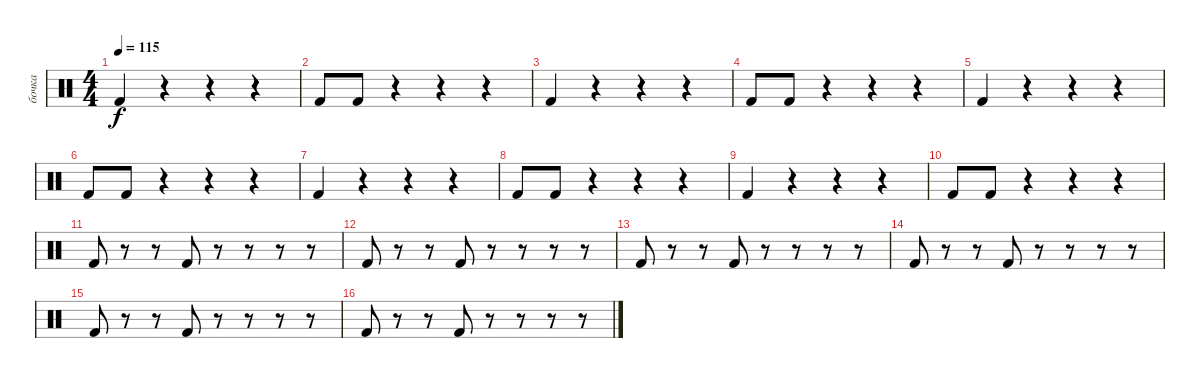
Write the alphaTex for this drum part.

\track ("бочка" "бочка") {mute instrument percussion}
\staff {score}
\articulation defaults
\ts (4 4)
\tempo 115
\clef neutral
\ks c "Kick (hit) 2".4{dy f}
r.4 r.4 r.4 |
"Kick (hit) 2".8 "Kick (hit) 2".8 r.4 r.4 r.4 |
"Kick (hit) 2".4 r.4 r.4 r.4 |
"Kick (hit) 2".8 "Kick (hit) 2".8 r.4 r.4 r.4 |
"Kick (hit) 2".4 r.4 r.4 r.4 |
"Kick (hit) 2".8 "Kick (hit) 2".8 r.4 r.4 r.4 |
"Kick (hit) 2".4 r.4 r.4 r.4 |
"Kick (hit) 2".8 "Kick (hit) 2".8 r.4 r.4 r.4 |
"Kick (hit) 2".4 r.4 r.4 r.4 |
"Kick (hit) 2".8 "Kick (hit) 2".8 r.4 r.4 r.4 |
"Kick (hit) 2".8 r.8 r.8 "Kick (hit) 2".8 r.8 r.8 r.8 r.8 |
"Kick (hit) 2".8 r.8 r.8 "Kick (hit) 2".8 r.8 r.8 r.8 r.8 |
"Kick (hit) 2".8 r.8 r.8 "Kick (hit) 2".8 r.8 r.8 r.8 r.8 |
"Kick (hit) 2".8 r.8 r.8 "Kick (hit) 2".8 r.8 r.8 r.8 r.8 |
"Kick (hit) 2".8 r.8 r.8 "Kick (hit) 2".8 r.8 r.8 r.8 r.8 |
"Kick (hit) 2".8 r.8 r.8 "Kick (hit) 2".8 r.8 r.8 r.8 r.8
